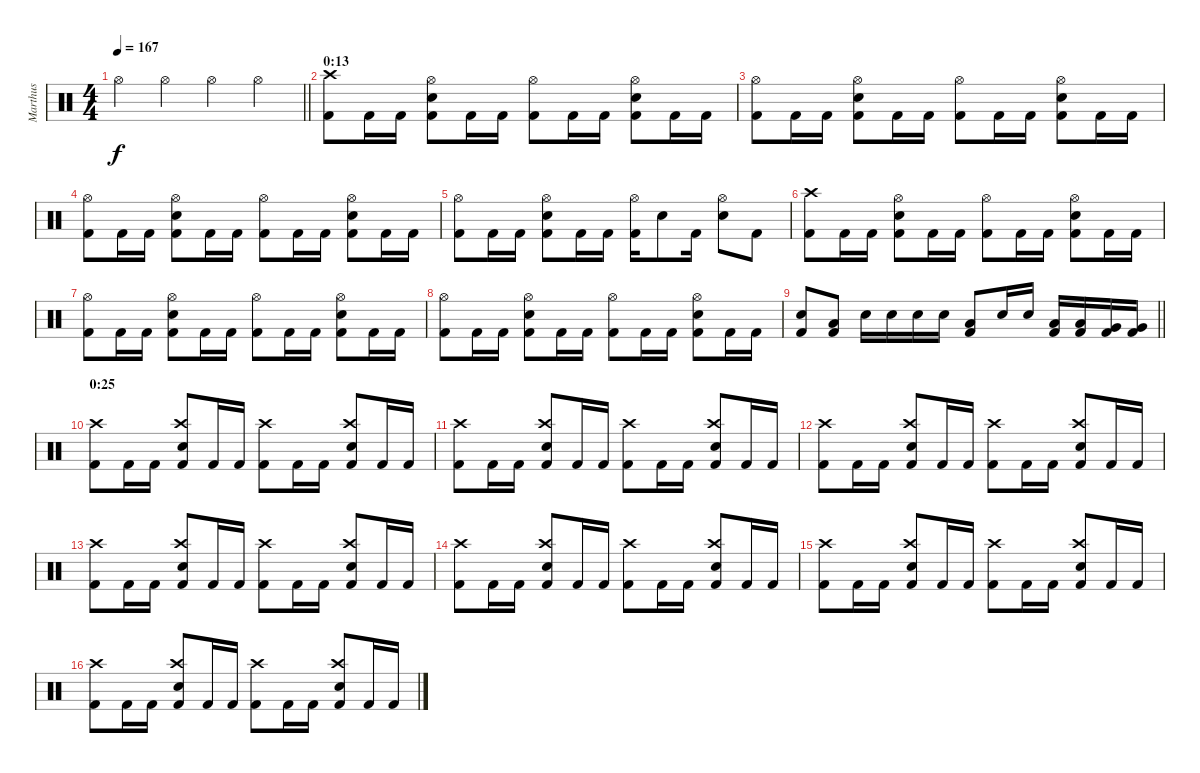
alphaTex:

\track ("Marthus" "Marthus") {instrument percussion}
\staff {score}
\articulation defaults
\ts (4 4)
\tempo 167
\clef neutral
\barLineRight lightlight
\ks c "Hi-Hat (open)".4{dy f} "Hi-Hat (open)".4 "Hi-Hat (open)".4 "Hi-Hat (open)".4
|
\section ("" "0:13")
("Kick (hit) 2" "Crash high (hit)").8 "Kick (hit) 2".16 "Kick (hit) 2".16 ("Kick (hit) 2" "Snare (hit) 2" "Hi-Hat (open)").8 "Kick (hit) 2".16 "Kick (hit) 2".16 ("Kick (hit) 2" "Hi-Hat (open)").8 "Kick (hit) 2".16 "Kick (hit) 2".16 ("Kick (hit) 2" "Snare (hit) 2" "Hi-Hat (open)").8 "Kick (hit) 2".16 "Kick (hit) 2".16 |
("Kick (hit) 2" "Hi-Hat (open)").8 "Kick (hit) 2".16 "Kick (hit) 2".16 ("Kick (hit) 2" "Snare (hit) 2" "Hi-Hat (open)").8 "Kick (hit) 2".16 "Kick (hit) 2".16 ("Kick (hit) 2" "Hi-Hat (open)").8 "Kick (hit) 2".16 "Kick (hit) 2".16 ("Kick (hit) 2" "Snare (hit) 2" "Hi-Hat (open)").8 "Kick (hit) 2".16 "Kick (hit) 2".16 |
("Kick (hit) 2" "Hi-Hat (open)").8 "Kick (hit) 2".16 "Kick (hit) 2".16 ("Kick (hit) 2" "Snare (hit) 2" "Hi-Hat (open)").8 "Kick (hit) 2".16 "Kick (hit) 2".16 ("Kick (hit) 2" "Hi-Hat (open)").8 "Kick (hit) 2".16 "Kick (hit) 2".16 ("Kick (hit) 2" "Snare (hit) 2" "Hi-Hat (open)").8 "Kick (hit) 2".16 "Kick (hit) 2".16 |
("Kick (hit) 2" "Hi-Hat (open)").8 "Kick (hit) 2".16 "Kick (hit) 2".16 ("Kick (hit) 2" "Snare (hit) 2" "Hi-Hat (open)").8 "Kick (hit) 2".16 "Kick (hit) 2".16 ("Kick (hit) 2" "Hi-Hat (open)").16 "Snare (hit) 2".8 "Kick (hit) 2".16 ("Snare (hit) 2" "Hi-Hat (open)").8 "Kick (hit) 2".8 |
("Kick (hit) 2" "Crash high (hit)").8 "Kick (hit) 2".16 "Kick (hit) 2".16 ("Kick (hit) 2" "Snare (hit) 2" "Hi-Hat (open)").8 "Kick (hit) 2".16 "Kick (hit) 2".16 ("Kick (hit) 2" "Hi-Hat (open)").8 "Kick (hit) 2".16 "Kick (hit) 2".16 ("Kick (hit) 2" "Snare (hit) 2" "Hi-Hat (open)").8 "Kick (hit) 2".16 "Kick (hit) 2".16 |
("Kick (hit) 2" "Hi-Hat (open)").8 "Kick (hit) 2".16 "Kick (hit) 2".16 ("Kick (hit) 2" "Snare (hit) 2" "Hi-Hat (open)").8 "Kick (hit) 2".16 "Kick (hit) 2".16 ("Kick (hit) 2" "Hi-Hat (open)").8 "Kick (hit) 2".16 "Kick (hit) 2".16 ("Kick (hit) 2" "Snare (hit) 2" "Hi-Hat (open)").8 "Kick (hit) 2".16 "Kick (hit) 2".16 |
("Kick (hit) 2" "Hi-Hat (open)").8 "Kick (hit) 2".16 "Kick (hit) 2".16 ("Kick (hit) 2" "Snare (hit) 2" "Hi-Hat (open)").8 "Kick (hit) 2".16 "Kick (hit) 2".16 ("Kick (hit) 2" "Hi-Hat (open)").8 "Kick (hit) 2".16 "Kick (hit) 2".16 ("Kick (hit) 2" "Snare (hit) 2" "Hi-Hat (open)").8 "Kick (hit) 2".16 "Kick (hit) 2".16 |
\barLineRight lightlight
("Kick (hit) 2" "Snare (hit) 2").8 ("Kick (hit) 2" "Low Tom (hit)").8 "Snare (hit) 2".16 "Snare (hit) 2".16 "Snare (hit) 2".16 "Snare (hit) 2".16 ("Kick (hit) 2" "Low Tom (hit)").8 "Snare (hit) 2".16 "Snare (hit) 2".16 ("Kick (hit) 2" "Low Tom (hit)").16 ("Kick (hit) 2" "Low Tom (hit)").16 ("Kick (hit) 2" "Very Low Tom (hit)").16 ("Kick (hit) 2" "Very Low Tom (hit)").16 |
\section ("" "0:25")
("Kick (hit) 2" "Crash high (hit)").8 "Kick (hit) 2".16 "Kick (hit) 2".16 ("Kick (hit) 2" "Snare (hit) 2" "Crash high (hit)").8 "Kick (hit) 2".16 "Kick (hit) 2".16 ("Kick (hit) 2" "Crash high (hit)").8 "Kick (hit) 2".16 "Kick (hit) 2".16 ("Kick (hit) 2" "Snare (hit) 2" "Crash high (hit)").8 "Kick (hit) 2".16 "Kick (hit) 2".16 |
("Kick (hit) 2" "Crash high (hit)").8 "Kick (hit) 2".16 "Kick (hit) 2".16 ("Kick (hit) 2" "Snare (hit) 2" "Crash high (hit)").8 "Kick (hit) 2".16 "Kick (hit) 2".16 ("Kick (hit) 2" "Crash high (hit)").8 "Kick (hit) 2".16 "Kick (hit) 2".16 ("Kick (hit) 2" "Snare (hit) 2" "Crash high (hit)").8 "Kick (hit) 2".16 "Kick (hit) 2".16 |
("Kick (hit) 2" "Crash high (hit)").8 "Kick (hit) 2".16 "Kick (hit) 2".16 ("Kick (hit) 2" "Snare (hit) 2" "Crash high (hit)").8 "Kick (hit) 2".16 "Kick (hit) 2".16 ("Kick (hit) 2" "Crash high (hit)").8 "Kick (hit) 2".16 "Kick (hit) 2".16 ("Kick (hit) 2" "Snare (hit) 2" "Crash high (hit)").8 "Kick (hit) 2".16 "Kick (hit) 2".16 |
("Kick (hit) 2" "Crash high (hit)").8 "Kick (hit) 2".16 "Kick (hit) 2".16 ("Kick (hit) 2" "Snare (hit) 2" "Crash high (hit)").8 "Kick (hit) 2".16 "Kick (hit) 2".16 ("Kick (hit) 2" "Crash high (hit)").8 "Kick (hit) 2".16 "Kick (hit) 2".16 ("Kick (hit) 2" "Snare (hit) 2" "Crash high (hit)").8 "Kick (hit) 2".16 "Kick (hit) 2".16 |
("Kick (hit) 2" "Crash high (hit)").8 "Kick (hit) 2".16 "Kick (hit) 2".16 ("Kick (hit) 2" "Snare (hit) 2" "Crash high (hit)").8 "Kick (hit) 2".16 "Kick (hit) 2".16 ("Kick (hit) 2" "Crash high (hit)").8 "Kick (hit) 2".16 "Kick (hit) 2".16 ("Kick (hit) 2" "Snare (hit) 2" "Crash high (hit)").8 "Kick (hit) 2".16 "Kick (hit) 2".16 |
("Kick (hit) 2" "Crash high (hit)").8 "Kick (hit) 2".16 "Kick (hit) 2".16 ("Kick (hit) 2" "Snare (hit) 2" "Crash high (hit)").8 "Kick (hit) 2".16 "Kick (hit) 2".16 ("Kick (hit) 2" "Crash high (hit)").8 "Kick (hit) 2".16 "Kick (hit) 2".16 ("Kick (hit) 2" "Snare (hit) 2" "Crash high (hit)").8 "Kick (hit) 2".16 "Kick (hit) 2".16 |
("Kick (hit) 2" "Crash high (hit)").8 "Kick (hit) 2".16 "Kick (hit) 2".16 ("Kick (hit) 2" "Snare (hit) 2" "Crash high (hit)").8 "Kick (hit) 2".16 "Kick (hit) 2".16 ("Kick (hit) 2" "Crash high (hit)").8 "Kick (hit) 2".16 "Kick (hit) 2".16 ("Kick (hit) 2" "Snare (hit) 2" "Crash high (hit)").8 "Kick (hit) 2".16 "Kick (hit) 2".16
